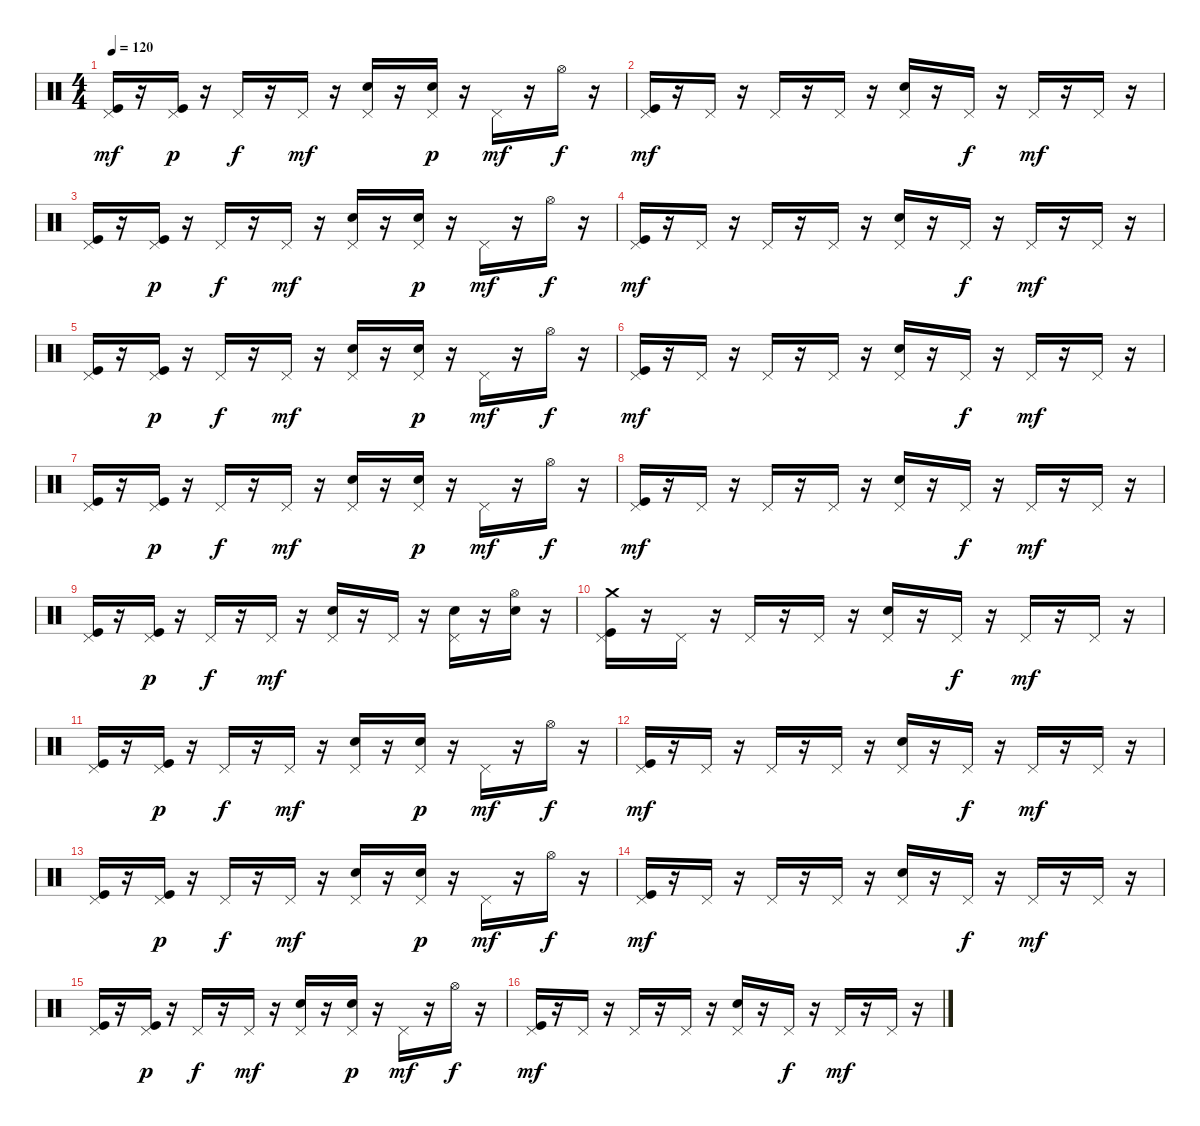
\track "" {instrument percussion}
\staff {score}
\articulation defaults
\ts (4 4)
\tempo 120
\clef neutral
\ks c
("Kick (hit)" "Pedal Hi-Hat (hit)").16{dy mf} r.16 ("Kick (hit)" "Pedal Hi-Hat (hit)").16{dy p} r.16 "Pedal Hi-Hat (hit)".16{dy f} r.16 "Pedal Hi-Hat (hit)".16{dy mf} r.16 ("Snare (hit) 2" "Pedal Hi-Hat (hit)").16 r.16 ("Snare (hit) 2" "Pedal Hi-Hat (hit)").16{dy p} r.16 "Pedal Hi-Hat (hit)".16{dy mf} r.16 "Hi-Hat (open)".16{dy f} r.16 |
("Kick (hit)" "Pedal Hi-Hat (hit)").16{dy mf} r.16 "Pedal Hi-Hat (hit)".16 r.16 "Pedal Hi-Hat (hit)".16 r.16 "Pedal Hi-Hat (hit)".16 r.16 ("Snare (hit) 2" "Pedal Hi-Hat (hit)").16 r.16 "Pedal Hi-Hat (hit)".16{dy f} r.16 "Pedal Hi-Hat (hit)".16{dy mf} r.16 "Pedal Hi-Hat (hit)".16 r.16 |
("Kick (hit)" "Pedal Hi-Hat (hit)").16 r.16 ("Kick (hit)" "Pedal Hi-Hat (hit)").16{dy p} r.16 "Pedal Hi-Hat (hit)".16{dy f} r.16 "Pedal Hi-Hat (hit)".16{dy mf} r.16 ("Snare (hit) 2" "Pedal Hi-Hat (hit)").16 r.16 ("Snare (hit) 2" "Pedal Hi-Hat (hit)").16{dy p} r.16 "Pedal Hi-Hat (hit)".16{dy mf} r.16 "Hi-Hat (open)".16{dy f} r.16 |
("Kick (hit)" "Pedal Hi-Hat (hit)").16{dy mf} r.16 "Pedal Hi-Hat (hit)".16 r.16 "Pedal Hi-Hat (hit)".16 r.16 "Pedal Hi-Hat (hit)".16 r.16 ("Snare (hit) 2" "Pedal Hi-Hat (hit)").16 r.16 "Pedal Hi-Hat (hit)".16{dy f} r.16 "Pedal Hi-Hat (hit)".16{dy mf} r.16 "Pedal Hi-Hat (hit)".16 r.16 |
("Kick (hit)" "Pedal Hi-Hat (hit)").16 r.16 ("Kick (hit)" "Pedal Hi-Hat (hit)").16{dy p} r.16 "Pedal Hi-Hat (hit)".16{dy f} r.16 "Pedal Hi-Hat (hit)".16{dy mf} r.16 ("Snare (hit) 2" "Pedal Hi-Hat (hit)").16 r.16 ("Snare (hit) 2" "Pedal Hi-Hat (hit)").16{dy p} r.16 "Pedal Hi-Hat (hit)".16{dy mf} r.16 "Hi-Hat (open)".16{dy f} r.16 |
("Kick (hit)" "Pedal Hi-Hat (hit)").16{dy mf} r.16 "Pedal Hi-Hat (hit)".16 r.16 "Pedal Hi-Hat (hit)".16 r.16 "Pedal Hi-Hat (hit)".16 r.16 ("Snare (hit) 2" "Pedal Hi-Hat (hit)").16 r.16 "Pedal Hi-Hat (hit)".16{dy f} r.16 "Pedal Hi-Hat (hit)".16{dy mf} r.16 "Pedal Hi-Hat (hit)".16 r.16 |
("Kick (hit)" "Pedal Hi-Hat (hit)").16 r.16 ("Kick (hit)" "Pedal Hi-Hat (hit)").16{dy p} r.16 "Pedal Hi-Hat (hit)".16{dy f} r.16 "Pedal Hi-Hat (hit)".16{dy mf} r.16 ("Snare (hit) 2" "Pedal Hi-Hat (hit)").16 r.16 ("Snare (hit) 2" "Pedal Hi-Hat (hit)").16{dy p} r.16 "Pedal Hi-Hat (hit)".16{dy mf} r.16 "Hi-Hat (open)".16{dy f} r.16 |
("Kick (hit)" "Pedal Hi-Hat (hit)").16{dy mf} r.16 "Pedal Hi-Hat (hit)".16 r.16 "Pedal Hi-Hat (hit)".16 r.16 "Pedal Hi-Hat (hit)".16 r.16 ("Snare (hit) 2" "Pedal Hi-Hat (hit)").16 r.16 "Pedal Hi-Hat (hit)".16{dy f} r.16 "Pedal Hi-Hat (hit)".16{dy mf} r.16 "Pedal Hi-Hat (hit)".16 r.16 |
("Kick (hit)" "Pedal Hi-Hat (hit)").16 r.16 ("Kick (hit)" "Pedal Hi-Hat (hit)").16{dy p} r.16 "Pedal Hi-Hat (hit)".16{dy f} r.16 "Pedal Hi-Hat (hit)".16{dy mf} r.16 ("Snare (hit) 2" "Pedal Hi-Hat (hit)").16 r.16 "Pedal Hi-Hat (hit)".16 r.16 ("Snare (hit) 2" "Pedal Hi-Hat (hit)").16 r.16 ("Hi-Hat (open)" "Snare (hit) 2").16 r.16 |
("Crash medium (hit)" "Kick (hit)" "Pedal Hi-Hat (hit)").16 r.16 "Pedal Hi-Hat (hit)".16 r.16 "Pedal Hi-Hat (hit)".16 r.16 "Pedal Hi-Hat (hit)".16 r.16 ("Snare (hit) 2" "Pedal Hi-Hat (hit)").16 r.16 "Pedal Hi-Hat (hit)".16{dy f} r.16 "Pedal Hi-Hat (hit)".16{dy mf} r.16 "Pedal Hi-Hat (hit)".16 r.16 |
("Kick (hit)" "Pedal Hi-Hat (hit)").16 r.16 ("Kick (hit)" "Pedal Hi-Hat (hit)").16{dy p} r.16 "Pedal Hi-Hat (hit)".16{dy f} r.16 "Pedal Hi-Hat (hit)".16{dy mf} r.16 ("Snare (hit) 2" "Pedal Hi-Hat (hit)").16 r.16 ("Snare (hit) 2" "Pedal Hi-Hat (hit)").16{dy p} r.16 "Pedal Hi-Hat (hit)".16{dy mf} r.16 "Hi-Hat (open)".16{dy f} r.16 |
("Kick (hit)" "Pedal Hi-Hat (hit)").16{dy mf} r.16 "Pedal Hi-Hat (hit)".16 r.16 "Pedal Hi-Hat (hit)".16 r.16 "Pedal Hi-Hat (hit)".16 r.16 ("Snare (hit) 2" "Pedal Hi-Hat (hit)").16 r.16 "Pedal Hi-Hat (hit)".16{dy f} r.16 "Pedal Hi-Hat (hit)".16{dy mf} r.16 "Pedal Hi-Hat (hit)".16 r.16 |
("Kick (hit)" "Pedal Hi-Hat (hit)").16 r.16 ("Kick (hit)" "Pedal Hi-Hat (hit)").16{dy p} r.16 "Pedal Hi-Hat (hit)".16{dy f} r.16 "Pedal Hi-Hat (hit)".16{dy mf} r.16 ("Snare (hit) 2" "Pedal Hi-Hat (hit)").16 r.16 ("Snare (hit) 2" "Pedal Hi-Hat (hit)").16{dy p} r.16 "Pedal Hi-Hat (hit)".16{dy mf} r.16 "Hi-Hat (open)".16{dy f} r.16 |
("Kick (hit)" "Pedal Hi-Hat (hit)").16{dy mf} r.16 "Pedal Hi-Hat (hit)".16 r.16 "Pedal Hi-Hat (hit)".16 r.16 "Pedal Hi-Hat (hit)".16 r.16 ("Snare (hit) 2" "Pedal Hi-Hat (hit)").16 r.16 "Pedal Hi-Hat (hit)".16{dy f} r.16 "Pedal Hi-Hat (hit)".16{dy mf} r.16 "Pedal Hi-Hat (hit)".16 r.16 |
("Kick (hit)" "Pedal Hi-Hat (hit)").16 r.16 ("Kick (hit)" "Pedal Hi-Hat (hit)").16{dy p} r.16 "Pedal Hi-Hat (hit)".16{dy f} r.16 "Pedal Hi-Hat (hit)".16{dy mf} r.16 ("Snare (hit) 2" "Pedal Hi-Hat (hit)").16 r.16 ("Snare (hit) 2" "Pedal Hi-Hat (hit)").16{dy p} r.16 "Pedal Hi-Hat (hit)".16{dy mf} r.16 "Hi-Hat (open)".16{dy f} r.16 |
("Kick (hit)" "Pedal Hi-Hat (hit)").16{dy mf} r.16 "Pedal Hi-Hat (hit)".16 r.16 "Pedal Hi-Hat (hit)".16 r.16 "Pedal Hi-Hat (hit)".16 r.16 ("Snare (hit) 2" "Pedal Hi-Hat (hit)").16 r.16 "Pedal Hi-Hat (hit)".16{dy f} r.16 "Pedal Hi-Hat (hit)".16{dy mf} r.16 "Pedal Hi-Hat (hit)".16 r.16
